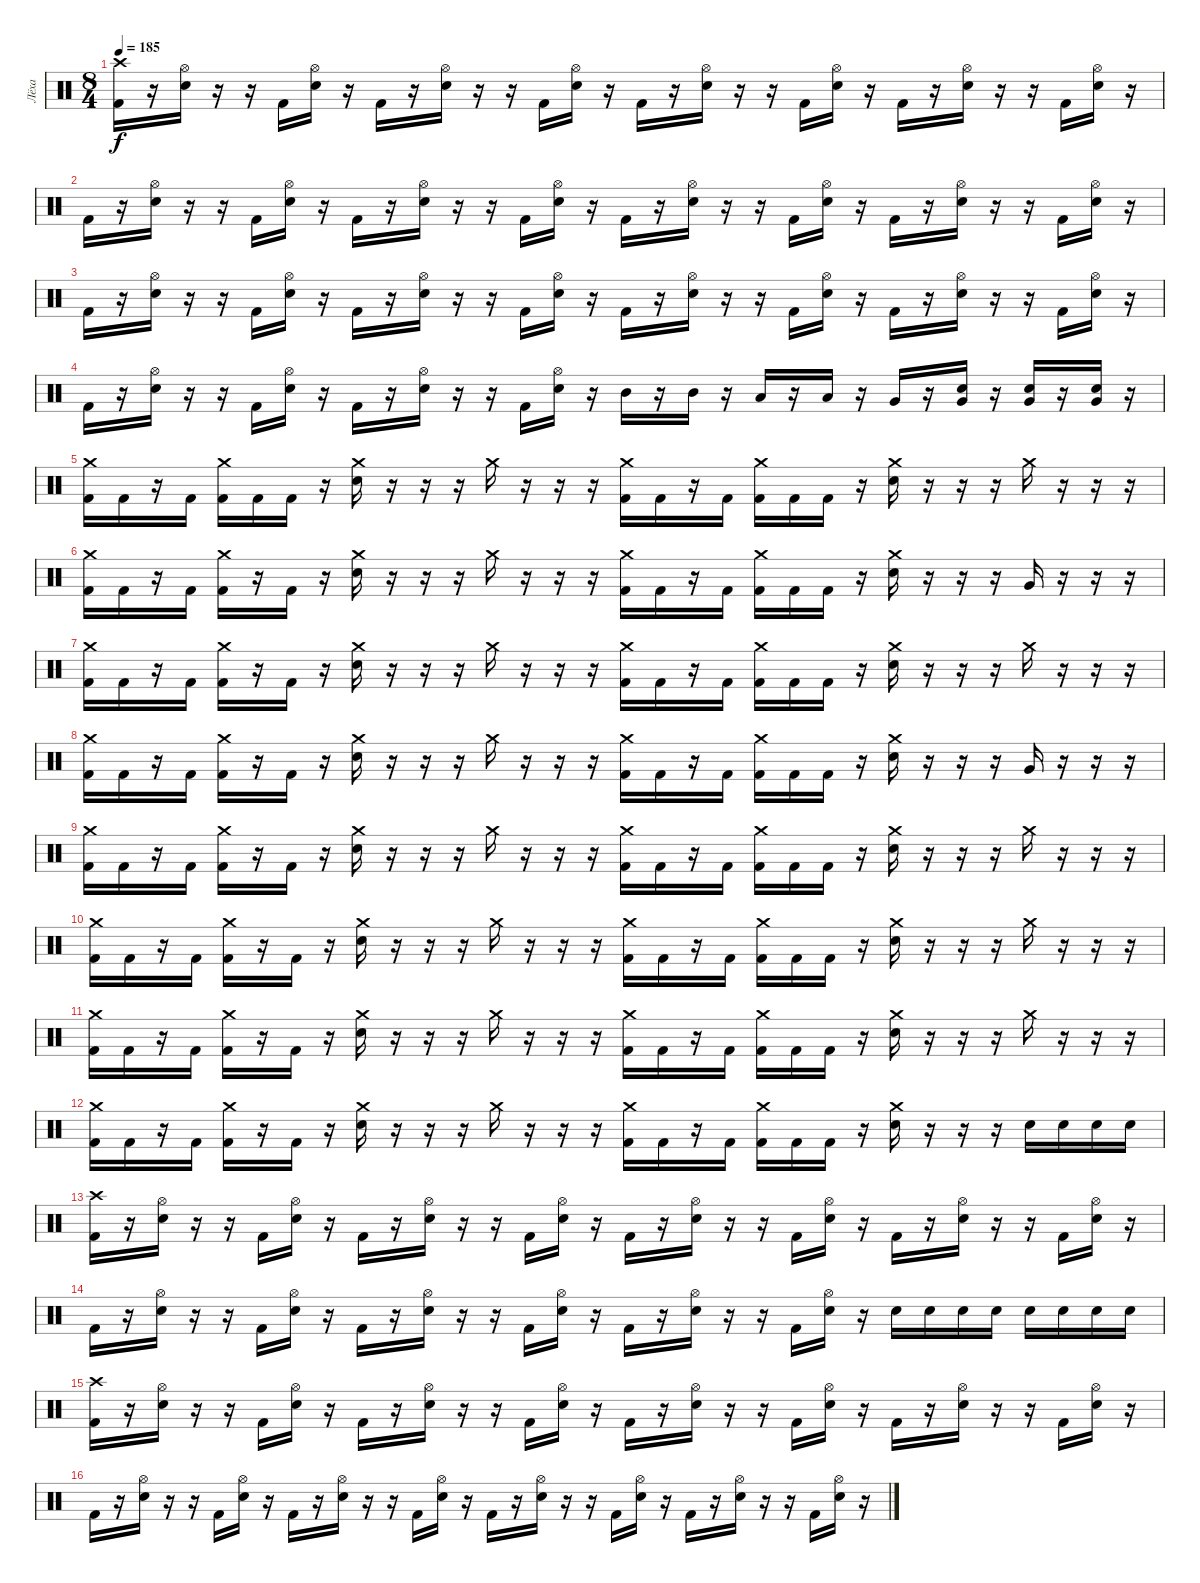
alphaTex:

\track ("Лёха" "Лёха") {instrument percussion}
\staff {score}
\articulation defaults
\ts (8 4)
\tempo 185
\clef neutral
\ks c
("Crash high (hit)" "Kick (hit) 2").16{dy f} r.16 ("Hi-Hat (open)" "Electric Snare (hit)").16 r.16 r.16 "Kick (hit) 2".16 ("Hi-Hat (open)" "Electric Snare (hit)").16 r.16 "Kick (hit) 2".16 r.16 ("Hi-Hat (open)" "Electric Snare (hit)").16 r.16 r.16 "Kick (hit) 2".16 ("Hi-Hat (open)" "Electric Snare (hit)").16 r.16 "Kick (hit) 2".16 r.16 ("Hi-Hat (open)" "Electric Snare (hit)").16 r.16 r.16 "Kick (hit) 2".16 ("Hi-Hat (open)" "Electric Snare (hit)").16 r.16 "Kick (hit) 2".16 r.16 ("Hi-Hat (open)" "Electric Snare (hit)").16 r.16 r.16 "Kick (hit) 2".16 ("Hi-Hat (open)" "Electric Snare (hit)").16 r.16 |
"Kick (hit) 2".16 r.16 ("Hi-Hat (open)" "Electric Snare (hit)").16 r.16 r.16 "Kick (hit) 2".16 ("Hi-Hat (open)" "Electric Snare (hit)").16 r.16 "Kick (hit) 2".16 r.16 ("Hi-Hat (open)" "Electric Snare (hit)").16 r.16 r.16 "Kick (hit) 2".16 ("Hi-Hat (open)" "Electric Snare (hit)").16 r.16 "Kick (hit) 2".16 r.16 ("Hi-Hat (open)" "Electric Snare (hit)").16 r.16 r.16 "Kick (hit) 2".16 ("Hi-Hat (open)" "Electric Snare (hit)").16 r.16 "Kick (hit) 2".16 r.16 ("Hi-Hat (open)" "Electric Snare (hit)").16 r.16 r.16 "Kick (hit) 2".16 ("Hi-Hat (open)" "Electric Snare (hit)").16 r.16 |
"Kick (hit) 2".16 r.16 ("Hi-Hat (open)" "Electric Snare (hit)").16 r.16 r.16 "Kick (hit) 2".16 ("Hi-Hat (open)" "Electric Snare (hit)").16 r.16 "Kick (hit) 2".16 r.16 ("Hi-Hat (open)" "Electric Snare (hit)").16 r.16 r.16 "Kick (hit) 2".16 ("Hi-Hat (open)" "Electric Snare (hit)").16 r.16 "Kick (hit) 2".16 r.16 ("Hi-Hat (open)" "Electric Snare (hit)").16 r.16 r.16 "Kick (hit) 2".16 ("Hi-Hat (open)" "Electric Snare (hit)").16 r.16 "Kick (hit) 2".16 r.16 ("Hi-Hat (open)" "Electric Snare (hit)").16 r.16 r.16 "Kick (hit) 2".16 ("Hi-Hat (open)" "Electric Snare (hit)").16 r.16 |
"Kick (hit) 2".16 r.16 ("Hi-Hat (open)" "Electric Snare (hit)").16 r.16 r.16 "Kick (hit) 2".16 ("Hi-Hat (open)" "Electric Snare (hit)").16 r.16 "Kick (hit) 2".16 r.16 ("Hi-Hat (open)" "Electric Snare (hit)").16 r.16 r.16 "Kick (hit) 2".16 ("Hi-Hat (open)" "Electric Snare (hit)").16 r.16 "Mid Tom (hit)".16 r.16 "Mid Tom (hit)".16 r.16 "Low Tom (hit)".16 r.16 "Low Tom (hit)".16 r.16 "Very Low Tom (hit)".16 r.16 ("Electric Snare (hit)" "Very Low Tom (hit)").16 r.16 ("Electric Snare (hit)" "Very Low Tom (hit)").16 r.16 ("Electric Snare (hit)" "Very Low Tom (hit)").16 r.16 |
("Crash medium (hit)" "Kick (hit) 2").16 "Kick (hit) 2".16 r.16 "Kick (hit) 2".16 ("Crash medium (hit)" "Kick (hit) 2").16 "Kick (hit) 2".16 "Kick (hit) 2".16 r.16 ("Crash medium (hit)" "Electric Snare (hit)").16 r.16 r.16 r.16 "Crash medium (hit)".16 r.16 r.16 r.16 ("Crash medium (hit)" "Kick (hit) 2").16 "Kick (hit) 2".16 r.16 "Kick (hit) 2".16 ("Crash medium (hit)" "Kick (hit) 2").16 "Kick (hit) 2".16 "Kick (hit) 2".16 r.16 ("Crash medium (hit)" "Electric Snare (hit)").16 r.16 r.16 r.16 "Crash medium (hit)".16 r.16 r.16 r.16 |
("Crash medium (hit)" "Kick (hit) 2").16 "Kick (hit) 2".16 r.16 "Kick (hit) 2".16 ("Crash medium (hit)" "Kick (hit) 2").16 r.16 "Kick (hit) 2".16 r.16 ("Crash medium (hit)" "Electric Snare (hit)").16 r.16 r.16 r.16 "Crash medium (hit)".16 r.16 r.16 r.16 ("Crash medium (hit)" "Kick (hit) 2").16 "Kick (hit) 2".16 r.16 "Kick (hit) 2".16 ("Crash medium (hit)" "Kick (hit) 2").16 "Kick (hit) 2".16 "Kick (hit) 2".16 r.16 ("Crash medium (hit)" "Electric Snare (hit)").16 r.16 r.16 r.16 "Very Low Tom (hit)".16 r.16 r.16 r.16 |
("Crash medium (hit)" "Kick (hit) 2").16 "Kick (hit) 2".16 r.16 "Kick (hit) 2".16 ("Crash medium (hit)" "Kick (hit) 2").16 r.16 "Kick (hit) 2".16 r.16 ("Crash medium (hit)" "Electric Snare (hit)").16 r.16 r.16 r.16 "Crash medium (hit)".16 r.16 r.16 r.16 ("Crash medium (hit)" "Kick (hit) 2").16 "Kick (hit) 2".16 r.16 "Kick (hit) 2".16 ("Crash medium (hit)" "Kick (hit) 2").16 "Kick (hit) 2".16 "Kick (hit) 2".16 r.16 ("Crash medium (hit)" "Electric Snare (hit)").16 r.16 r.16 r.16 "Crash medium (hit)".16 r.16 r.16 r.16 |
("Crash medium (hit)" "Kick (hit) 2").16 "Kick (hit) 2".16 r.16 "Kick (hit) 2".16 ("Crash medium (hit)" "Kick (hit) 2").16 r.16 "Kick (hit) 2".16 r.16 ("Crash medium (hit)" "Electric Snare (hit)").16 r.16 r.16 r.16 "Crash medium (hit)".16 r.16 r.16 r.16 ("Crash medium (hit)" "Kick (hit) 2").16 "Kick (hit) 2".16 r.16 "Kick (hit) 2".16 ("Crash medium (hit)" "Kick (hit) 2").16 "Kick (hit) 2".16 "Kick (hit) 2".16 r.16 ("Crash medium (hit)" "Electric Snare (hit)").16 r.16 r.16 r.16 "Very Low Tom (hit)".16 r.16 r.16 r.16 |
("Crash medium (hit)" "Kick (hit) 2").16 "Kick (hit) 2".16 r.16 "Kick (hit) 2".16 ("Crash medium (hit)" "Kick (hit) 2").16 r.16 "Kick (hit) 2".16 r.16 ("Crash medium (hit)" "Electric Snare (hit)").16 r.16 r.16 r.16 "Crash medium (hit)".16 r.16 r.16 r.16 ("Crash medium (hit)" "Kick (hit) 2").16 "Kick (hit) 2".16 r.16 "Kick (hit) 2".16 ("Crash medium (hit)" "Kick (hit) 2").16 "Kick (hit) 2".16 "Kick (hit) 2".16 r.16 ("Crash medium (hit)" "Electric Snare (hit)").16 r.16 r.16 r.16 "Crash medium (hit)".16 r.16 r.16 r.16 |
("Crash medium (hit)" "Kick (hit) 2").16 "Kick (hit) 2".16 r.16 "Kick (hit) 2".16 ("Crash medium (hit)" "Kick (hit) 2").16 r.16 "Kick (hit) 2".16 r.16 ("Crash medium (hit)" "Electric Snare (hit)").16 r.16 r.16 r.16 "Crash medium (hit)".16 r.16 r.16 r.16 ("Crash medium (hit)" "Kick (hit) 2").16 "Kick (hit) 2".16 r.16 "Kick (hit) 2".16 ("Crash medium (hit)" "Kick (hit) 2").16 "Kick (hit) 2".16 "Kick (hit) 2".16 r.16 ("Crash medium (hit)" "Electric Snare (hit)").16 r.16 r.16 r.16 "Crash medium (hit)".16 r.16 r.16 r.16 |
("Crash medium (hit)" "Kick (hit) 2").16 "Kick (hit) 2".16 r.16 "Kick (hit) 2".16 ("Crash medium (hit)" "Kick (hit) 2").16 r.16 "Kick (hit) 2".16 r.16 ("Crash medium (hit)" "Electric Snare (hit)").16 r.16 r.16 r.16 "Crash medium (hit)".16 r.16 r.16 r.16 ("Crash medium (hit)" "Kick (hit) 2").16 "Kick (hit) 2".16 r.16 "Kick (hit) 2".16 ("Crash medium (hit)" "Kick (hit) 2").16 "Kick (hit) 2".16 "Kick (hit) 2".16 r.16 ("Crash medium (hit)" "Electric Snare (hit)").16 r.16 r.16 r.16 "Crash medium (hit)".16 r.16 r.16 r.16 |
("Crash medium (hit)" "Kick (hit) 2").16 "Kick (hit) 2".16 r.16 "Kick (hit) 2".16 ("Crash medium (hit)" "Kick (hit) 2").16 r.16 "Kick (hit) 2".16 r.16 ("Crash medium (hit)" "Electric Snare (hit)").16 r.16 r.16 r.16 "Crash medium (hit)".16 r.16 r.16 r.16 ("Crash medium (hit)" "Kick (hit) 2").16 "Kick (hit) 2".16 r.16 "Kick (hit) 2".16 ("Crash medium (hit)" "Kick (hit) 2").16 "Kick (hit) 2".16 "Kick (hit) 2".16 r.16 ("Crash medium (hit)" "Electric Snare (hit)").16 r.16 r.16 r.16 "Electric Snare (hit)".16 "Electric Snare (hit)".16 "Electric Snare (hit)".16 "Electric Snare (hit)".16 |
("Crash high (hit)" "Kick (hit) 2").16 r.16 ("Hi-Hat (open)" "Electric Snare (hit)").16 r.16 r.16 "Kick (hit) 2".16 ("Hi-Hat (open)" "Electric Snare (hit)").16 r.16 "Kick (hit) 2".16 r.16 ("Hi-Hat (open)" "Electric Snare (hit)").16 r.16 r.16 "Kick (hit) 2".16 ("Hi-Hat (open)" "Electric Snare (hit)").16 r.16 "Kick (hit) 2".16 r.16 ("Hi-Hat (open)" "Electric Snare (hit)").16 r.16 r.16 "Kick (hit) 2".16 ("Hi-Hat (open)" "Electric Snare (hit)").16 r.16 "Kick (hit) 2".16 r.16 ("Hi-Hat (open)" "Electric Snare (hit)").16 r.16 r.16 "Kick (hit) 2".16 ("Hi-Hat (open)" "Electric Snare (hit)").16 r.16 |
"Kick (hit) 2".16 r.16 ("Hi-Hat (open)" "Electric Snare (hit)").16 r.16 r.16 "Kick (hit) 2".16 ("Hi-Hat (open)" "Electric Snare (hit)").16 r.16 "Kick (hit) 2".16 r.16 ("Hi-Hat (open)" "Electric Snare (hit)").16 r.16 r.16 "Kick (hit) 2".16 ("Hi-Hat (open)" "Electric Snare (hit)").16 r.16 "Kick (hit) 2".16 r.16 ("Hi-Hat (open)" "Electric Snare (hit)").16 r.16 r.16 "Kick (hit) 2".16 ("Hi-Hat (open)" "Electric Snare (hit)").16 r.16 "Electric Snare (hit)".16 "Electric Snare (hit)".16 "Electric Snare (hit)".16 "Electric Snare (hit)".16 "Electric Snare (hit)".16 "Electric Snare (hit)".16 "Electric Snare (hit)".16 "Electric Snare (hit)".16 |
("Crash high (hit)" "Kick (hit) 2").16 r.16 ("Hi-Hat (open)" "Electric Snare (hit)").16 r.16 r.16 "Kick (hit) 2".16 ("Hi-Hat (open)" "Electric Snare (hit)").16 r.16 "Kick (hit) 2".16 r.16 ("Hi-Hat (open)" "Electric Snare (hit)").16 r.16 r.16 "Kick (hit) 2".16 ("Hi-Hat (open)" "Electric Snare (hit)").16 r.16 "Kick (hit) 2".16 r.16 ("Hi-Hat (open)" "Electric Snare (hit)").16 r.16 r.16 "Kick (hit) 2".16 ("Hi-Hat (open)" "Electric Snare (hit)").16 r.16 "Kick (hit) 2".16 r.16 ("Hi-Hat (open)" "Electric Snare (hit)").16 r.16 r.16 "Kick (hit) 2".16 ("Hi-Hat (open)" "Electric Snare (hit)").16 r.16 |
"Kick (hit) 2".16 r.16 ("Hi-Hat (open)" "Electric Snare (hit)").16 r.16 r.16 "Kick (hit) 2".16 ("Hi-Hat (open)" "Electric Snare (hit)").16 r.16 "Kick (hit) 2".16 r.16 ("Hi-Hat (open)" "Electric Snare (hit)").16 r.16 r.16 "Kick (hit) 2".16 ("Hi-Hat (open)" "Electric Snare (hit)").16 r.16 "Kick (hit) 2".16 r.16 ("Hi-Hat (open)" "Electric Snare (hit)").16 r.16 r.16 "Kick (hit) 2".16 ("Hi-Hat (open)" "Electric Snare (hit)").16 r.16 "Kick (hit) 2".16 r.16 ("Hi-Hat (open)" "Electric Snare (hit)").16 r.16 r.16 "Kick (hit) 2".16 ("Hi-Hat (open)" "Electric Snare (hit)").16 r.16
